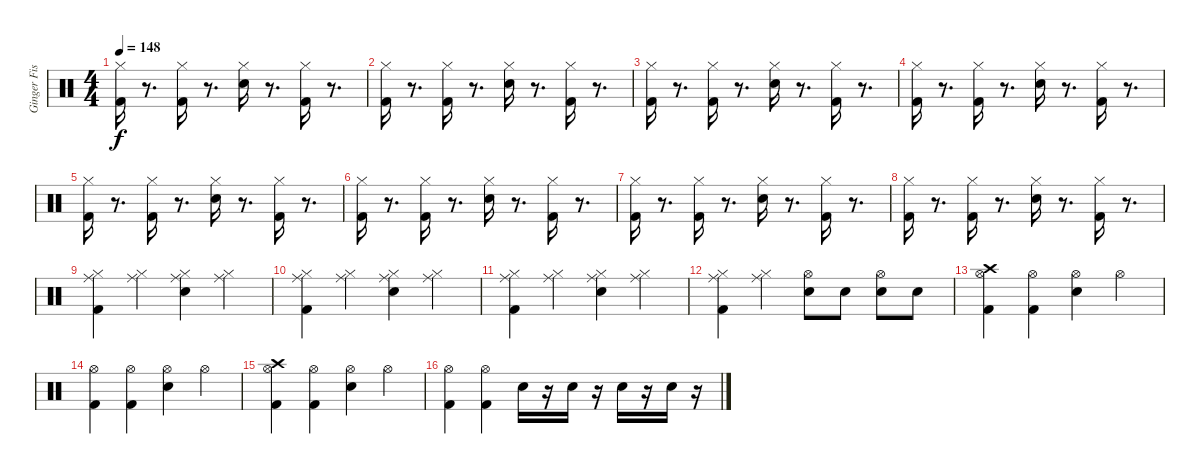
\track ("Ginger Fish (Drums)" "Ginger Fis") {instrument percussion}
\staff {score}
\articulation defaults
\ts (4 4)
\tempo 148
\clef neutral
\ks c
("Kick (hit) 2" "Hi-Hat (closed)").16{dy f} r.8{d} ("Kick (hit) 2" "Hi-Hat (closed)").16 r.8{d} ("Snare (hit) 2" "Hi-Hat (closed)").16 r.8{d} ("Kick (hit) 2" "Hi-Hat (closed)").16 r.8{d} |
("Kick (hit) 2" "Hi-Hat (closed)").16 r.8{d} ("Kick (hit) 2" "Hi-Hat (closed)").16 r.8{d} ("Snare (hit) 2" "Hi-Hat (closed)").16 r.8{d} ("Kick (hit) 2" "Hi-Hat (closed)").16 r.8{d} |
("Kick (hit) 2" "Hi-Hat (closed)").16 r.8{d} ("Kick (hit) 2" "Hi-Hat (closed)").16 r.8{d} ("Snare (hit) 2" "Hi-Hat (closed)").16 r.8{d} ("Kick (hit) 2" "Hi-Hat (closed)").16 r.8{d} |
("Kick (hit) 2" "Hi-Hat (closed)").16 r.8{d} ("Kick (hit) 2" "Hi-Hat (closed)").16 r.8{d} ("Snare (hit) 2" "Hi-Hat (closed)").16 r.8{d} ("Kick (hit) 2" "Hi-Hat (closed)").16 r.8{d} |
("Kick (hit) 2" "Hi-Hat (closed)").16 r.8{d} ("Kick (hit) 2" "Hi-Hat (closed)").16 r.8{d} ("Snare (hit) 2" "Hi-Hat (closed)").16 r.8{d} ("Kick (hit) 2" "Hi-Hat (closed)").16 r.8{d} |
("Kick (hit) 2" "Hi-Hat (closed)").16 r.8{d} ("Kick (hit) 2" "Hi-Hat (closed)").16 r.8{d} ("Snare (hit) 2" "Hi-Hat (closed)").16 r.8{d} ("Kick (hit) 2" "Hi-Hat (closed)").16 r.8{d} |
("Kick (hit) 2" "Hi-Hat (closed)").16 r.8{d} ("Kick (hit) 2" "Hi-Hat (closed)").16 r.8{d} ("Snare (hit) 2" "Hi-Hat (closed)").16 r.8{d} ("Kick (hit) 2" "Hi-Hat (closed)").16 r.8{d} |
("Kick (hit) 2" "Hi-Hat (closed)").16 r.8{d} ("Kick (hit) 2" "Hi-Hat (closed)").16 r.8{d} ("Snare (hit) 2" "Hi-Hat (closed)").16 r.8{d} ("Kick (hit) 2" "Hi-Hat (closed)").16 r.8{d} |
("Ride (middle)" "Hi-Hat (closed)" "Kick (hit) 2").4 ("Ride (middle)" "Hi-Hat (closed)").4 ("Ride (middle)" "Hi-Hat (closed)" "Snare (hit) 2").4 ("Ride (middle)" "Hi-Hat (closed)").4 |
("Ride (middle)" "Hi-Hat (closed)" "Kick (hit) 2").4 ("Ride (middle)" "Hi-Hat (closed)").4 ("Ride (middle)" "Hi-Hat (closed)" "Snare (hit) 2").4 ("Ride (middle)" "Hi-Hat (closed)").4 |
("Ride (middle)" "Hi-Hat (closed)" "Kick (hit) 2").4 ("Ride (middle)" "Hi-Hat (closed)").4 ("Ride (middle)" "Hi-Hat (closed)" "Snare (hit) 2").4 ("Ride (middle)" "Hi-Hat (closed)").4 |
("Ride (middle)" "Hi-Hat (closed)" "Kick (hit) 2").4 ("Ride (middle)" "Hi-Hat (closed)").4 ("Hi-Hat (open)" "Snare (hit) 2").8 "Snare (hit) 2".8 ("Hi-Hat (open)" "Snare (hit) 2").8 "Snare (hit) 2".8 |
("Hi-Hat (open)" "Kick (hit) 2" "Crash high (hit)").4 ("Kick (hit) 2" "Hi-Hat (open)").4 ("Hi-Hat (open)" "Snare (hit) 2").4 "Hi-Hat (open)".4 |
("Hi-Hat (open)" "Kick (hit) 2").4 ("Hi-Hat (open)" "Kick (hit) 2").4 ("Hi-Hat (open)" "Snare (hit) 2").4 "Hi-Hat (open)".4 |
("Crash high (hit)" "Hi-Hat (open)" "Kick (hit) 2").4 ("Hi-Hat (open)" "Kick (hit) 2").4 ("Hi-Hat (open)" "Snare (hit) 2").4 "Hi-Hat (open)".4 |
("Hi-Hat (open)" "Kick (hit) 2").4 ("Hi-Hat (open)" "Kick (hit) 2").4 "Snare (hit) 2".16 r.16 "Snare (hit) 2".16 r.16 "Snare (hit) 2".16 r.16 "Snare (hit) 2".16 r.16
